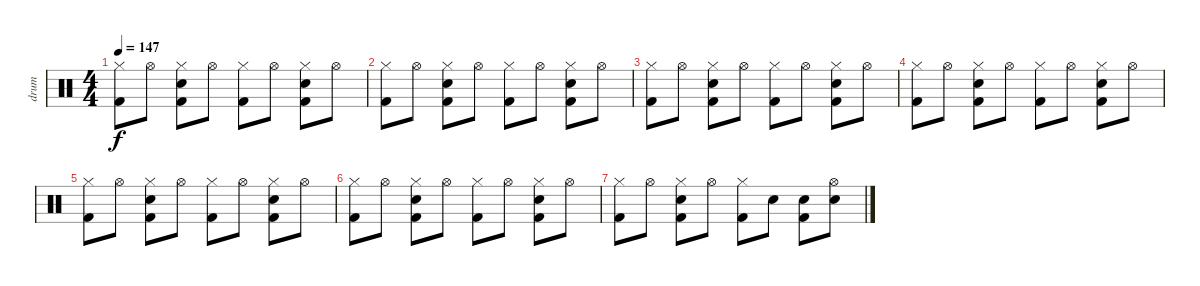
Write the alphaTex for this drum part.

\track ("drum" "drum") {instrument percussion}
\staff {score}
\articulation defaults
\ts (4 4)
\tempo 147
\clef neutral
\ks c
("Hi-Hat (closed)" "Kick (hit) 2").8{dy f} "Hi-Hat (open)".8 ("Hi-Hat (closed)" "Electric Snare (hit)" "Kick (hit) 2").8 "Hi-Hat (open)".8 ("Hi-Hat (closed)" "Kick (hit) 2").8 "Hi-Hat (open)".8 ("Hi-Hat (closed)" "Electric Snare (hit)" "Kick (hit) 2").8 "Hi-Hat (open)".8 |
("Hi-Hat (closed)" "Kick (hit) 2").8 "Hi-Hat (open)".8 ("Hi-Hat (closed)" "Electric Snare (hit)" "Kick (hit) 2").8 "Hi-Hat (open)".8 ("Hi-Hat (closed)" "Kick (hit) 2").8 "Hi-Hat (open)".8 ("Hi-Hat (closed)" "Electric Snare (hit)" "Kick (hit) 2").8 "Hi-Hat (open)".8 |
("Hi-Hat (closed)" "Kick (hit) 2").8 "Hi-Hat (open)".8 ("Hi-Hat (closed)" "Electric Snare (hit)" "Kick (hit) 2").8 "Hi-Hat (open)".8 ("Hi-Hat (closed)" "Kick (hit) 2").8 "Hi-Hat (open)".8 ("Hi-Hat (closed)" "Electric Snare (hit)" "Kick (hit) 2").8 "Hi-Hat (open)".8 |
("Hi-Hat (closed)" "Kick (hit) 2").8 "Hi-Hat (open)".8 ("Hi-Hat (closed)" "Electric Snare (hit)" "Kick (hit) 2").8 "Hi-Hat (open)".8 ("Hi-Hat (closed)" "Kick (hit) 2").8 "Hi-Hat (open)".8 ("Hi-Hat (closed)" "Electric Snare (hit)" "Kick (hit) 2").8 "Hi-Hat (open)".8 |
("Hi-Hat (closed)" "Kick (hit) 2").8 "Hi-Hat (open)".8 ("Hi-Hat (closed)" "Electric Snare (hit)" "Kick (hit) 2").8 "Hi-Hat (open)".8 ("Hi-Hat (closed)" "Kick (hit) 2").8 "Hi-Hat (open)".8 ("Hi-Hat (closed)" "Electric Snare (hit)" "Kick (hit) 2").8 "Hi-Hat (open)".8 |
("Hi-Hat (closed)" "Kick (hit) 2").8 "Hi-Hat (open)".8 ("Hi-Hat (closed)" "Electric Snare (hit)" "Kick (hit) 2").8 "Hi-Hat (open)".8 ("Hi-Hat (closed)" "Kick (hit) 2").8 "Hi-Hat (open)".8 ("Hi-Hat (closed)" "Electric Snare (hit)" "Kick (hit) 2").8 "Hi-Hat (open)".8 |
("Hi-Hat (closed)" "Kick (hit) 2").8 "Hi-Hat (open)".8 ("Hi-Hat (closed)" "Electric Snare (hit)" "Kick (hit) 2").8 "Hi-Hat (open)".8 ("Hi-Hat (closed)" "Kick (hit) 2").8 "Electric Snare (hit)".8 ("Electric Snare (hit)" "Kick (hit) 2").8 ("Hi-Hat (open)" "Electric Snare (hit)").8
